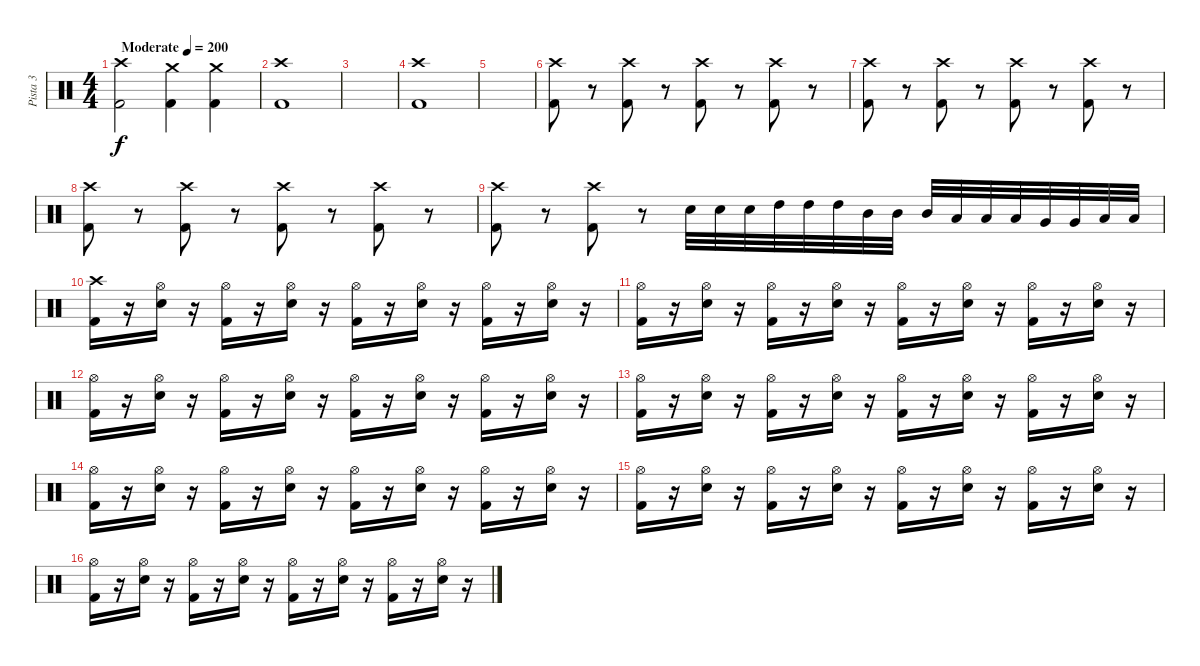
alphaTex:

\track ("Pista 3" "Pista 3") {instrument percussion}
\staff {score}
\articulation defaults
\ts (4 4)
\tempo (200 "Moderate")
\clef neutral
\ks c
("Crash high (hit)" "Kick (hit) 2").2{dy f} ("Crash medium (hit)" "Kick (hit) 2").4 ("Crash medium (hit)" "Kick (hit) 2").4 |
("Crash high (hit)" "Kick (hit) 2").1 |
|
("Crash high (hit)" "Kick (hit) 2").1 |
|
("Crash high (hit)" "Kick (hit) 2").8 r.8 ("Crash high (hit)" "Kick (hit) 2").8 r.8 ("Crash high (hit)" "Kick (hit) 2").8 r.8 ("Crash high (hit)" "Kick (hit) 2").8 r.8 |
("Crash high (hit)" "Kick (hit) 2").8 r.8 ("Crash high (hit)" "Kick (hit) 2").8 r.8 ("Crash high (hit)" "Kick (hit) 2").8 r.8 ("Crash high (hit)" "Kick (hit) 2").8 r.8 |
("Crash high (hit)" "Kick (hit) 2").8 r.8 ("Crash high (hit)" "Kick (hit) 2").8 r.8 ("Crash high (hit)" "Kick (hit) 2").8 r.8 ("Crash high (hit)" "Kick (hit) 2").8 r.8 |
("Crash high (hit)" "Kick (hit) 2").8 r.8 ("Crash high (hit)" "Kick (hit) 2").8 r.8 "Electric Snare (hit)".32 "Electric Snare (hit)".32 "Electric Snare (hit)".32 "High Tom (hit)".32 "High Tom (hit)".32 "High Tom (hit)".32 "Mid Tom (hit)".32 "Mid Tom (hit)".32 "Mid Tom (hit)".32 "Low Tom (hit)".32 "Low Tom (hit)".32 "Low Tom (hit)".32 "Very Low Tom (hit)".32 "Very Low Tom (hit)".32 "Low Floor Tom (hit)".32 "Low Floor Tom (hit)".32 |
("Crash high (hit)" "Kick (hit) 2").16 r.16 ("Hi-Hat (open)" "Electric Snare (hit)").16 r.16 ("Hi-Hat (open)" "Kick (hit) 2").16 r.16 ("Hi-Hat (open)" "Electric Snare (hit)").16 r.16 ("Hi-Hat (open)" "Kick (hit) 2").16 r.16 ("Hi-Hat (open)" "Electric Snare (hit)").16 r.16 ("Hi-Hat (open)" "Kick (hit) 2").16 r.16 ("Hi-Hat (open)" "Electric Snare (hit)").16 r.16 |
("Hi-Hat (open)" "Kick (hit) 2").16 r.16 ("Hi-Hat (open)" "Electric Snare (hit)").16 r.16 ("Hi-Hat (open)" "Kick (hit) 2").16 r.16 ("Hi-Hat (open)" "Electric Snare (hit)").16 r.16 ("Hi-Hat (open)" "Kick (hit) 2").16 r.16 ("Hi-Hat (open)" "Electric Snare (hit)").16 r.16 ("Hi-Hat (open)" "Kick (hit) 2").16 r.16 ("Hi-Hat (open)" "Electric Snare (hit)").16 r.16 |
("Hi-Hat (open)" "Kick (hit) 2").16 r.16 ("Hi-Hat (open)" "Electric Snare (hit)").16 r.16 ("Hi-Hat (open)" "Kick (hit) 2").16 r.16 ("Hi-Hat (open)" "Electric Snare (hit)").16 r.16 ("Hi-Hat (open)" "Kick (hit) 2").16 r.16 ("Hi-Hat (open)" "Electric Snare (hit)").16 r.16 ("Hi-Hat (open)" "Kick (hit) 2").16 r.16 ("Hi-Hat (open)" "Electric Snare (hit)").16 r.16 |
("Hi-Hat (open)" "Kick (hit) 2").16 r.16 ("Hi-Hat (open)" "Electric Snare (hit)").16 r.16 ("Hi-Hat (open)" "Kick (hit) 2").16 r.16 ("Hi-Hat (open)" "Electric Snare (hit)").16 r.16 ("Hi-Hat (open)" "Kick (hit) 2").16 r.16 ("Hi-Hat (open)" "Electric Snare (hit)").16 r.16 ("Hi-Hat (open)" "Kick (hit) 2").16 r.16 ("Hi-Hat (open)" "Electric Snare (hit)").16 r.16 |
("Hi-Hat (open)" "Kick (hit) 2").16 r.16 ("Hi-Hat (open)" "Electric Snare (hit)").16 r.16 ("Hi-Hat (open)" "Kick (hit) 2").16 r.16 ("Hi-Hat (open)" "Electric Snare (hit)").16 r.16 ("Hi-Hat (open)" "Kick (hit) 2").16 r.16 ("Hi-Hat (open)" "Electric Snare (hit)").16 r.16 ("Hi-Hat (open)" "Kick (hit) 2").16 r.16 ("Hi-Hat (open)" "Electric Snare (hit)").16 r.16 |
("Hi-Hat (open)" "Kick (hit) 2").16 r.16 ("Hi-Hat (open)" "Electric Snare (hit)").16 r.16 ("Hi-Hat (open)" "Kick (hit) 2").16 r.16 ("Hi-Hat (open)" "Electric Snare (hit)").16 r.16 ("Hi-Hat (open)" "Kick (hit) 2").16 r.16 ("Hi-Hat (open)" "Electric Snare (hit)").16 r.16 ("Hi-Hat (open)" "Kick (hit) 2").16 r.16 ("Hi-Hat (open)" "Electric Snare (hit)").16 r.16 |
("Hi-Hat (open)" "Kick (hit) 2").16 r.16 ("Hi-Hat (open)" "Electric Snare (hit)").16 r.16 ("Hi-Hat (open)" "Kick (hit) 2").16 r.16 ("Hi-Hat (open)" "Electric Snare (hit)").16 r.16 ("Hi-Hat (open)" "Kick (hit) 2").16 r.16 ("Hi-Hat (open)" "Electric Snare (hit)").16 r.16 ("Hi-Hat (open)" "Kick (hit) 2").16 r.16 ("Hi-Hat (open)" "Electric Snare (hit)").16 r.16
